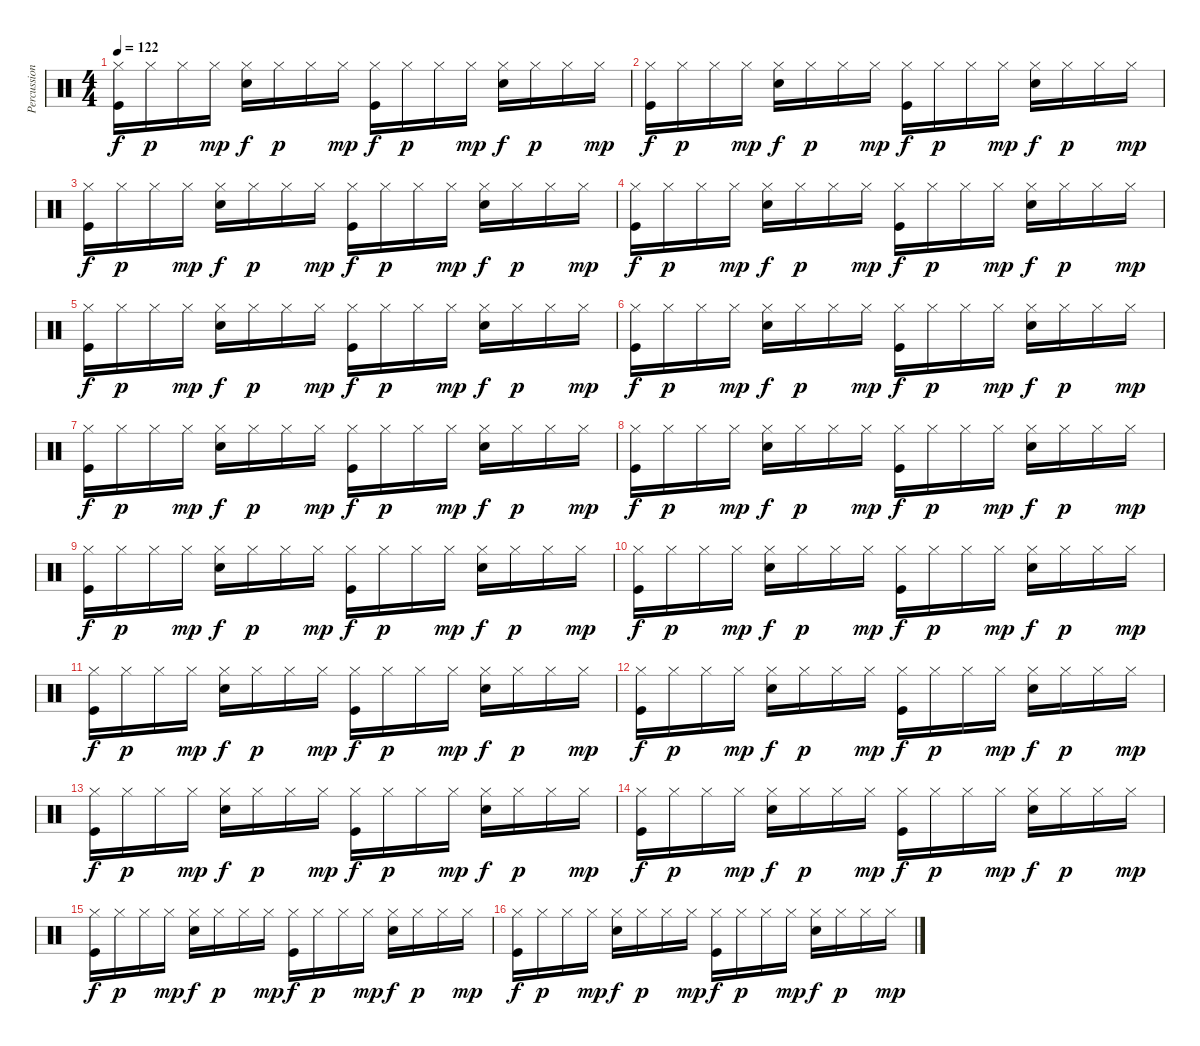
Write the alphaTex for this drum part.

\track ("Percussioni" "Percussion") {instrument percussion}
\staff {score}
\articulation defaults
\ts (4 4)
\tempo 122
\clef neutral
\ks c
("Hi-Hat (closed)" "Kick (hit)").16{dy f} "Hi-Hat (closed)".16{dy p} "Hi-Hat (closed)".16 "Hi-Hat (closed)".16{dy mp} ("Hi-Hat (closed)" "Snare (hit) 2").16{dy f} "Hi-Hat (closed)".16{dy p} "Hi-Hat (closed)".16 "Hi-Hat (closed)".16{dy mp} ("Hi-Hat (closed)" "Kick (hit)").16{dy f} "Hi-Hat (closed)".16{dy p} "Hi-Hat (closed)".16 "Hi-Hat (closed)".16{dy mp} ("Hi-Hat (closed)" "Snare (hit) 2").16{dy f} "Hi-Hat (closed)".16{dy p} "Hi-Hat (closed)".16 "Hi-Hat (closed)".16{dy mp} |
("Hi-Hat (closed)" "Kick (hit)").16{dy f} "Hi-Hat (closed)".16{dy p} "Hi-Hat (closed)".16 "Hi-Hat (closed)".16{dy mp} ("Hi-Hat (closed)" "Snare (hit) 2").16{dy f} "Hi-Hat (closed)".16{dy p} "Hi-Hat (closed)".16 "Hi-Hat (closed)".16{dy mp} ("Hi-Hat (closed)" "Kick (hit)").16{dy f} "Hi-Hat (closed)".16{dy p} "Hi-Hat (closed)".16 "Hi-Hat (closed)".16{dy mp} ("Hi-Hat (closed)" "Snare (hit) 2").16{dy f} "Hi-Hat (closed)".16{dy p} "Hi-Hat (closed)".16 "Hi-Hat (closed)".16{dy mp} |
("Hi-Hat (closed)" "Kick (hit)").16{dy f} "Hi-Hat (closed)".16{dy p} "Hi-Hat (closed)".16 "Hi-Hat (closed)".16{dy mp} ("Hi-Hat (closed)" "Snare (hit) 2").16{dy f} "Hi-Hat (closed)".16{dy p} "Hi-Hat (closed)".16 "Hi-Hat (closed)".16{dy mp} ("Hi-Hat (closed)" "Kick (hit)").16{dy f} "Hi-Hat (closed)".16{dy p} "Hi-Hat (closed)".16 "Hi-Hat (closed)".16{dy mp} ("Hi-Hat (closed)" "Snare (hit) 2").16{dy f} "Hi-Hat (closed)".16{dy p} "Hi-Hat (closed)".16 "Hi-Hat (closed)".16{dy mp} |
("Hi-Hat (closed)" "Kick (hit)").16{dy f} "Hi-Hat (closed)".16{dy p} "Hi-Hat (closed)".16 "Hi-Hat (closed)".16{dy mp} ("Hi-Hat (closed)" "Snare (hit) 2").16{dy f} "Hi-Hat (closed)".16{dy p} "Hi-Hat (closed)".16 "Hi-Hat (closed)".16{dy mp} ("Hi-Hat (closed)" "Kick (hit)").16{dy f} "Hi-Hat (closed)".16{dy p} "Hi-Hat (closed)".16 "Hi-Hat (closed)".16{dy mp} ("Hi-Hat (closed)" "Snare (hit) 2").16{dy f} "Hi-Hat (closed)".16{dy p} "Hi-Hat (closed)".16 "Hi-Hat (closed)".16{dy mp} |
("Hi-Hat (closed)" "Kick (hit)").16{dy f} "Hi-Hat (closed)".16{dy p} "Hi-Hat (closed)".16 "Hi-Hat (closed)".16{dy mp} ("Hi-Hat (closed)" "Snare (hit) 2").16{dy f} "Hi-Hat (closed)".16{dy p} "Hi-Hat (closed)".16 "Hi-Hat (closed)".16{dy mp} ("Hi-Hat (closed)" "Kick (hit)").16{dy f} "Hi-Hat (closed)".16{dy p} "Hi-Hat (closed)".16 "Hi-Hat (closed)".16{dy mp} ("Hi-Hat (closed)" "Snare (hit) 2").16{dy f} "Hi-Hat (closed)".16{dy p} "Hi-Hat (closed)".16 "Hi-Hat (closed)".16{dy mp} |
("Hi-Hat (closed)" "Kick (hit)").16{dy f} "Hi-Hat (closed)".16{dy p} "Hi-Hat (closed)".16 "Hi-Hat (closed)".16{dy mp} ("Hi-Hat (closed)" "Snare (hit) 2").16{dy f} "Hi-Hat (closed)".16{dy p} "Hi-Hat (closed)".16 "Hi-Hat (closed)".16{dy mp} ("Hi-Hat (closed)" "Kick (hit)").16{dy f} "Hi-Hat (closed)".16{dy p} "Hi-Hat (closed)".16 "Hi-Hat (closed)".16{dy mp} ("Hi-Hat (closed)" "Snare (hit) 2").16{dy f} "Hi-Hat (closed)".16{dy p} "Hi-Hat (closed)".16 "Hi-Hat (closed)".16{dy mp} |
("Hi-Hat (closed)" "Kick (hit)").16{dy f} "Hi-Hat (closed)".16{dy p} "Hi-Hat (closed)".16 "Hi-Hat (closed)".16{dy mp} ("Hi-Hat (closed)" "Snare (hit) 2").16{dy f} "Hi-Hat (closed)".16{dy p} "Hi-Hat (closed)".16 "Hi-Hat (closed)".16{dy mp} ("Hi-Hat (closed)" "Kick (hit)").16{dy f} "Hi-Hat (closed)".16{dy p} "Hi-Hat (closed)".16 "Hi-Hat (closed)".16{dy mp} ("Hi-Hat (closed)" "Snare (hit) 2").16{dy f} "Hi-Hat (closed)".16{dy p} "Hi-Hat (closed)".16 "Hi-Hat (closed)".16{dy mp} |
("Hi-Hat (closed)" "Kick (hit)").16{dy f} "Hi-Hat (closed)".16{dy p} "Hi-Hat (closed)".16 "Hi-Hat (closed)".16{dy mp} ("Hi-Hat (closed)" "Snare (hit) 2").16{dy f} "Hi-Hat (closed)".16{dy p} "Hi-Hat (closed)".16 "Hi-Hat (closed)".16{dy mp} ("Hi-Hat (closed)" "Kick (hit)").16{dy f} "Hi-Hat (closed)".16{dy p} "Hi-Hat (closed)".16 "Hi-Hat (closed)".16{dy mp} ("Hi-Hat (closed)" "Snare (hit) 2").16{dy f} "Hi-Hat (closed)".16{dy p} "Hi-Hat (closed)".16 "Hi-Hat (closed)".16{dy mp} |
("Hi-Hat (closed)" "Kick (hit)").16{dy f} "Hi-Hat (closed)".16{dy p} "Hi-Hat (closed)".16 "Hi-Hat (closed)".16{dy mp} ("Hi-Hat (closed)" "Snare (hit) 2").16{dy f} "Hi-Hat (closed)".16{dy p} "Hi-Hat (closed)".16 "Hi-Hat (closed)".16{dy mp} ("Hi-Hat (closed)" "Kick (hit)").16{dy f} "Hi-Hat (closed)".16{dy p} "Hi-Hat (closed)".16 "Hi-Hat (closed)".16{dy mp} ("Hi-Hat (closed)" "Snare (hit) 2").16{dy f} "Hi-Hat (closed)".16{dy p} "Hi-Hat (closed)".16 "Hi-Hat (closed)".16{dy mp} |
("Hi-Hat (closed)" "Kick (hit)").16{dy f} "Hi-Hat (closed)".16{dy p} "Hi-Hat (closed)".16 "Hi-Hat (closed)".16{dy mp} ("Hi-Hat (closed)" "Snare (hit) 2").16{dy f} "Hi-Hat (closed)".16{dy p} "Hi-Hat (closed)".16 "Hi-Hat (closed)".16{dy mp} ("Hi-Hat (closed)" "Kick (hit)").16{dy f} "Hi-Hat (closed)".16{dy p} "Hi-Hat (closed)".16 "Hi-Hat (closed)".16{dy mp} ("Hi-Hat (closed)" "Snare (hit) 2").16{dy f} "Hi-Hat (closed)".16{dy p} "Hi-Hat (closed)".16 "Hi-Hat (closed)".16{dy mp} |
("Hi-Hat (closed)" "Kick (hit)").16{dy f} "Hi-Hat (closed)".16{dy p} "Hi-Hat (closed)".16 "Hi-Hat (closed)".16{dy mp} ("Hi-Hat (closed)" "Snare (hit) 2").16{dy f} "Hi-Hat (closed)".16{dy p} "Hi-Hat (closed)".16 "Hi-Hat (closed)".16{dy mp} ("Hi-Hat (closed)" "Kick (hit)").16{dy f} "Hi-Hat (closed)".16{dy p} "Hi-Hat (closed)".16 "Hi-Hat (closed)".16{dy mp} ("Hi-Hat (closed)" "Snare (hit) 2").16{dy f} "Hi-Hat (closed)".16{dy p} "Hi-Hat (closed)".16 "Hi-Hat (closed)".16{dy mp} |
("Hi-Hat (closed)" "Kick (hit)").16{dy f} "Hi-Hat (closed)".16{dy p} "Hi-Hat (closed)".16 "Hi-Hat (closed)".16{dy mp} ("Hi-Hat (closed)" "Snare (hit) 2").16{dy f} "Hi-Hat (closed)".16{dy p} "Hi-Hat (closed)".16 "Hi-Hat (closed)".16{dy mp} ("Hi-Hat (closed)" "Kick (hit)").16{dy f} "Hi-Hat (closed)".16{dy p} "Hi-Hat (closed)".16 "Hi-Hat (closed)".16{dy mp} ("Hi-Hat (closed)" "Snare (hit) 2").16{dy f} "Hi-Hat (closed)".16{dy p} "Hi-Hat (closed)".16 "Hi-Hat (closed)".16{dy mp} |
("Hi-Hat (closed)" "Kick (hit)").16{dy f} "Hi-Hat (closed)".16{dy p} "Hi-Hat (closed)".16 "Hi-Hat (closed)".16{dy mp} ("Hi-Hat (closed)" "Snare (hit) 2").16{dy f} "Hi-Hat (closed)".16{dy p} "Hi-Hat (closed)".16 "Hi-Hat (closed)".16{dy mp} ("Hi-Hat (closed)" "Kick (hit)").16{dy f} "Hi-Hat (closed)".16{dy p} "Hi-Hat (closed)".16 "Hi-Hat (closed)".16{dy mp} ("Hi-Hat (closed)" "Snare (hit) 2").16{dy f} "Hi-Hat (closed)".16{dy p} "Hi-Hat (closed)".16 "Hi-Hat (closed)".16{dy mp} |
("Hi-Hat (closed)" "Kick (hit)").16{dy f} "Hi-Hat (closed)".16{dy p} "Hi-Hat (closed)".16 "Hi-Hat (closed)".16{dy mp} ("Hi-Hat (closed)" "Snare (hit) 2").16{dy f} "Hi-Hat (closed)".16{dy p} "Hi-Hat (closed)".16 "Hi-Hat (closed)".16{dy mp} ("Hi-Hat (closed)" "Kick (hit)").16{dy f} "Hi-Hat (closed)".16{dy p} "Hi-Hat (closed)".16 "Hi-Hat (closed)".16{dy mp} ("Hi-Hat (closed)" "Snare (hit) 2").16{dy f} "Hi-Hat (closed)".16{dy p} "Hi-Hat (closed)".16 "Hi-Hat (closed)".16{dy mp} |
("Hi-Hat (closed)" "Kick (hit)").16{dy f} "Hi-Hat (closed)".16{dy p} "Hi-Hat (closed)".16 "Hi-Hat (closed)".16{dy mp} ("Hi-Hat (closed)" "Snare (hit) 2").16{dy f} "Hi-Hat (closed)".16{dy p} "Hi-Hat (closed)".16 "Hi-Hat (closed)".16{dy mp} ("Hi-Hat (closed)" "Kick (hit)").16{dy f} "Hi-Hat (closed)".16{dy p} "Hi-Hat (closed)".16 "Hi-Hat (closed)".16{dy mp} ("Hi-Hat (closed)" "Snare (hit) 2").16{dy f} "Hi-Hat (closed)".16{dy p} "Hi-Hat (closed)".16 "Hi-Hat (closed)".16{dy mp} |
("Hi-Hat (closed)" "Kick (hit)").16{dy f} "Hi-Hat (closed)".16{dy p} "Hi-Hat (closed)".16 "Hi-Hat (closed)".16{dy mp} ("Hi-Hat (closed)" "Snare (hit) 2").16{dy f} "Hi-Hat (closed)".16{dy p} "Hi-Hat (closed)".16 "Hi-Hat (closed)".16{dy mp} ("Hi-Hat (closed)" "Kick (hit)").16{dy f} "Hi-Hat (closed)".16{dy p} "Hi-Hat (closed)".16 "Hi-Hat (closed)".16{dy mp} ("Hi-Hat (closed)" "Snare (hit) 2").16{dy f} "Hi-Hat (closed)".16{dy p} "Hi-Hat (closed)".16 "Hi-Hat (closed)".16{dy mp}
